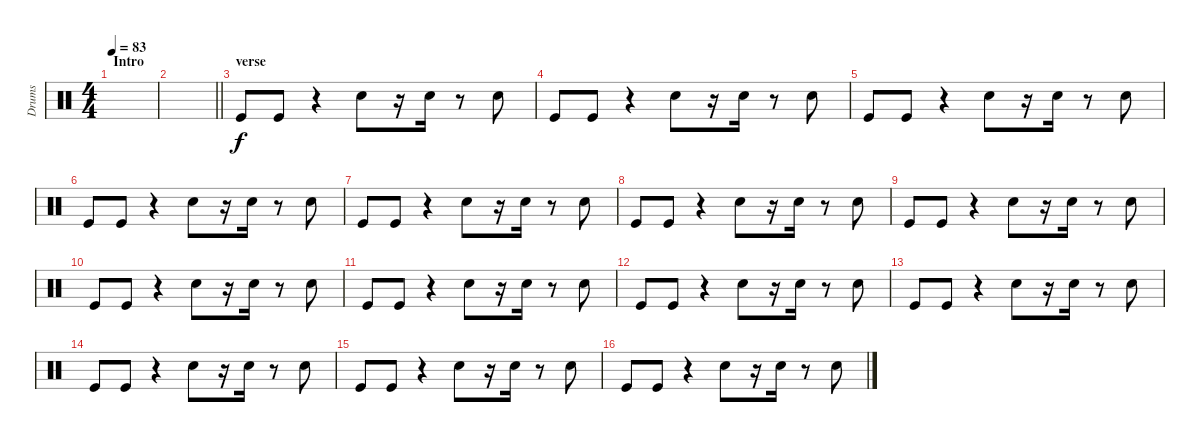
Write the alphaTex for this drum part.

\track ("Drums" "Drums") {instrument percussion}
\staff {score}
\articulation defaults
\ts (4 4)
\section ("" "Intro")
\tempo 83
\clef neutral
\ks c
|
\barLineRight lightlight
|
\section ("" "verse")
"Kick (hit)".8 "Kick (hit)".8 r.4 "Snare (hit) 2".8 r.16 "Electric Snare (hit)".16 r.8 "Electric Snare (hit)".8 |
"Kick (hit)".8 "Kick (hit)".8 r.4 "Snare (hit) 2".8 r.16 "Electric Snare (hit)".16 r.8 "Electric Snare (hit)".8 |
"Kick (hit)".8 "Kick (hit)".8 r.4 "Snare (hit) 2".8 r.16 "Electric Snare (hit)".16 r.8 "Electric Snare (hit)".8 |
"Kick (hit)".8 "Kick (hit)".8 r.4 "Snare (hit) 2".8 r.16 "Electric Snare (hit)".16 r.8 "Electric Snare (hit)".8 |
"Kick (hit)".8 "Kick (hit)".8 r.4 "Snare (hit) 2".8 r.16 "Electric Snare (hit)".16 r.8 "Electric Snare (hit)".8 |
"Kick (hit)".8 "Kick (hit)".8 r.4 "Snare (hit) 2".8 r.16 "Electric Snare (hit)".16 r.8 "Electric Snare (hit)".8 |
"Kick (hit)".8 "Kick (hit)".8 r.4 "Snare (hit) 2".8 r.16 "Electric Snare (hit)".16 r.8 "Electric Snare (hit)".8 |
"Kick (hit)".8 "Kick (hit)".8 r.4 "Snare (hit) 2".8 r.16 "Electric Snare (hit)".16 r.8 "Electric Snare (hit)".8 |
"Kick (hit)".8 "Kick (hit)".8 r.4 "Snare (hit) 2".8 r.16 "Electric Snare (hit)".16 r.8 "Electric Snare (hit)".8 |
"Kick (hit)".8 "Kick (hit)".8 r.4 "Snare (hit) 2".8 r.16 "Electric Snare (hit)".16 r.8 "Electric Snare (hit)".8 |
"Kick (hit)".8 "Kick (hit)".8 r.4 "Snare (hit) 2".8 r.16 "Electric Snare (hit)".16 r.8 "Electric Snare (hit)".8 |
"Kick (hit)".8 "Kick (hit)".8 r.4 "Snare (hit) 2".8 r.16 "Electric Snare (hit)".16 r.8 "Electric Snare (hit)".8 |
"Kick (hit)".8 "Kick (hit)".8 r.4 "Snare (hit) 2".8 r.16 "Electric Snare (hit)".16 r.8 "Electric Snare (hit)".8 |
"Kick (hit)".8 "Kick (hit)".8 r.4 "Snare (hit) 2".8 r.16 "Electric Snare (hit)".16 r.8 "Electric Snare (hit)".8
